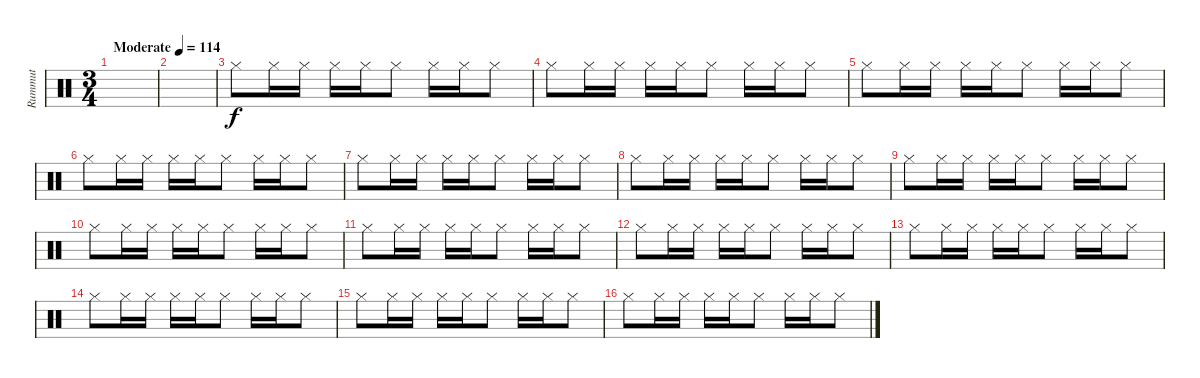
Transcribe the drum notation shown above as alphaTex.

\track ("Rummut" "Rummut") {instrument percussion}
\staff {score}
\articulation defaults
\ts (3 4)
\tempo (114 "Moderate")
\clef neutral
\ks c
|
|
"Hi-Hat (closed)".8 "Hi-Hat (closed)".16 "Hi-Hat (closed)".16 "Hi-Hat (closed)".16 "Hi-Hat (closed)".16 "Hi-Hat (closed)".8 "Hi-Hat (closed)".16 "Hi-Hat (closed)".16 "Hi-Hat (closed)".8 |
"Hi-Hat (closed)".8 "Hi-Hat (closed)".16 "Hi-Hat (closed)".16 "Hi-Hat (closed)".16 "Hi-Hat (closed)".16 "Hi-Hat (closed)".8 "Hi-Hat (closed)".16 "Hi-Hat (closed)".16 "Hi-Hat (closed)".8 |
"Hi-Hat (closed)".8 "Hi-Hat (closed)".16 "Hi-Hat (closed)".16 "Hi-Hat (closed)".16 "Hi-Hat (closed)".16 "Hi-Hat (closed)".8 "Hi-Hat (closed)".16 "Hi-Hat (closed)".16 "Hi-Hat (closed)".8 |
"Hi-Hat (closed)".8 "Hi-Hat (closed)".16 "Hi-Hat (closed)".16 "Hi-Hat (closed)".16 "Hi-Hat (closed)".16 "Hi-Hat (closed)".8 "Hi-Hat (closed)".16 "Hi-Hat (closed)".16 "Hi-Hat (closed)".8 |
"Hi-Hat (closed)".8 "Hi-Hat (closed)".16 "Hi-Hat (closed)".16 "Hi-Hat (closed)".16 "Hi-Hat (closed)".16 "Hi-Hat (closed)".8 "Hi-Hat (closed)".16 "Hi-Hat (closed)".16 "Hi-Hat (closed)".8 |
"Hi-Hat (closed)".8 "Hi-Hat (closed)".16 "Hi-Hat (closed)".16 "Hi-Hat (closed)".16 "Hi-Hat (closed)".16 "Hi-Hat (closed)".8 "Hi-Hat (closed)".16 "Hi-Hat (closed)".16 "Hi-Hat (closed)".8 |
"Hi-Hat (closed)".8 "Hi-Hat (closed)".16 "Hi-Hat (closed)".16 "Hi-Hat (closed)".16 "Hi-Hat (closed)".16 "Hi-Hat (closed)".8 "Hi-Hat (closed)".16 "Hi-Hat (closed)".16 "Hi-Hat (closed)".8 |
"Hi-Hat (closed)".8 "Hi-Hat (closed)".16 "Hi-Hat (closed)".16 "Hi-Hat (closed)".16 "Hi-Hat (closed)".16 "Hi-Hat (closed)".8 "Hi-Hat (closed)".16 "Hi-Hat (closed)".16 "Hi-Hat (closed)".8 |
"Hi-Hat (closed)".8 "Hi-Hat (closed)".16 "Hi-Hat (closed)".16 "Hi-Hat (closed)".16 "Hi-Hat (closed)".16 "Hi-Hat (closed)".8 "Hi-Hat (closed)".16 "Hi-Hat (closed)".16 "Hi-Hat (closed)".8 |
"Hi-Hat (closed)".8 "Hi-Hat (closed)".16 "Hi-Hat (closed)".16 "Hi-Hat (closed)".16 "Hi-Hat (closed)".16 "Hi-Hat (closed)".8 "Hi-Hat (closed)".16 "Hi-Hat (closed)".16 "Hi-Hat (closed)".8 |
"Hi-Hat (closed)".8 "Hi-Hat (closed)".16 "Hi-Hat (closed)".16 "Hi-Hat (closed)".16 "Hi-Hat (closed)".16 "Hi-Hat (closed)".8 "Hi-Hat (closed)".16 "Hi-Hat (closed)".16 "Hi-Hat (closed)".8 |
"Hi-Hat (closed)".8 "Hi-Hat (closed)".16 "Hi-Hat (closed)".16 "Hi-Hat (closed)".16 "Hi-Hat (closed)".16 "Hi-Hat (closed)".8 "Hi-Hat (closed)".16 "Hi-Hat (closed)".16 "Hi-Hat (closed)".8 |
"Hi-Hat (closed)".8 "Hi-Hat (closed)".16 "Hi-Hat (closed)".16 "Hi-Hat (closed)".16 "Hi-Hat (closed)".16 "Hi-Hat (closed)".8 "Hi-Hat (closed)".16 "Hi-Hat (closed)".16 "Hi-Hat (closed)".8 |
"Hi-Hat (closed)".8 "Hi-Hat (closed)".16 "Hi-Hat (closed)".16 "Hi-Hat (closed)".16 "Hi-Hat (closed)".16 "Hi-Hat (closed)".8 "Hi-Hat (closed)".16 "Hi-Hat (closed)".16 "Hi-Hat (closed)".8
